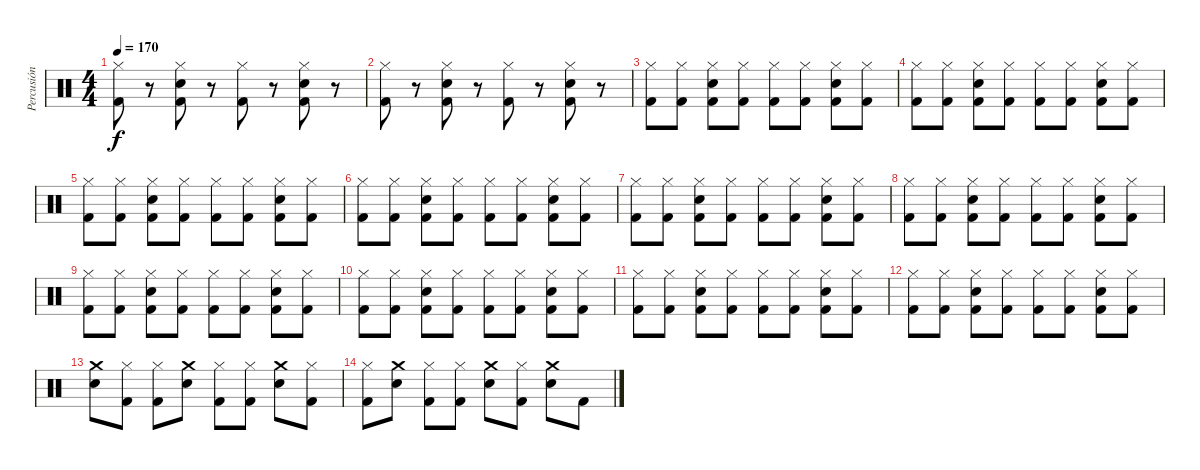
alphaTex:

\track ("Percusión" "Percusión") {instrument percussion}
\staff {score}
\articulation defaults
\ts (4 4)
\tempo 170
\clef neutral
\ks c
("Hi-Hat (closed)" "Kick (hit) 2").8{dy f} r.8 ("Snare (hit) 2" "Hi-Hat (closed)" "Kick (hit) 2").8 r.8 ("Hi-Hat (closed)" "Kick (hit) 2").8 r.8 ("Snare (hit) 2" "Hi-Hat (closed)" "Kick (hit) 2").8 r.8 |
("Hi-Hat (closed)" "Kick (hit) 2").8 r.8 ("Snare (hit) 2" "Hi-Hat (closed)" "Kick (hit) 2").8 r.8 ("Hi-Hat (closed)" "Kick (hit) 2").8 r.8 ("Snare (hit) 2" "Hi-Hat (closed)" "Kick (hit) 2").8 r.8 |
("Hi-Hat (closed)" "Kick (hit) 2").8 ("Hi-Hat (closed)" "Kick (hit) 2").8 ("Snare (hit) 2" "Hi-Hat (closed)" "Kick (hit) 2").8 ("Hi-Hat (closed)" "Kick (hit) 2").8 ("Hi-Hat (closed)" "Kick (hit) 2").8 ("Hi-Hat (closed)" "Kick (hit) 2").8 ("Snare (hit) 2" "Hi-Hat (closed)" "Kick (hit) 2").8 ("Hi-Hat (closed)" "Kick (hit) 2").8 |
("Hi-Hat (closed)" "Kick (hit) 2").8 ("Hi-Hat (closed)" "Kick (hit) 2").8 ("Snare (hit) 2" "Hi-Hat (closed)" "Kick (hit) 2").8 ("Hi-Hat (closed)" "Kick (hit) 2").8 ("Hi-Hat (closed)" "Kick (hit) 2").8 ("Hi-Hat (closed)" "Kick (hit) 2").8 ("Snare (hit) 2" "Hi-Hat (closed)" "Kick (hit) 2").8 ("Hi-Hat (closed)" "Kick (hit) 2").8 |
("Hi-Hat (closed)" "Kick (hit) 2").8 ("Hi-Hat (closed)" "Kick (hit) 2").8 ("Snare (hit) 2" "Hi-Hat (closed)" "Kick (hit) 2").8 ("Hi-Hat (closed)" "Kick (hit) 2").8 ("Hi-Hat (closed)" "Kick (hit) 2").8 ("Hi-Hat (closed)" "Kick (hit) 2").8 ("Snare (hit) 2" "Hi-Hat (closed)" "Kick (hit) 2").8 ("Hi-Hat (closed)" "Kick (hit) 2").8 |
("Hi-Hat (closed)" "Kick (hit) 2").8 ("Hi-Hat (closed)" "Kick (hit) 2").8 ("Snare (hit) 2" "Hi-Hat (closed)" "Kick (hit) 2").8 ("Hi-Hat (closed)" "Kick (hit) 2").8 ("Hi-Hat (closed)" "Kick (hit) 2").8 ("Hi-Hat (closed)" "Kick (hit) 2").8 ("Snare (hit) 2" "Hi-Hat (closed)" "Kick (hit) 2").8 ("Hi-Hat (closed)" "Kick (hit) 2").8 |
("Hi-Hat (closed)" "Kick (hit) 2").8 ("Hi-Hat (closed)" "Kick (hit) 2").8 ("Snare (hit) 2" "Hi-Hat (closed)" "Kick (hit) 2").8 ("Hi-Hat (closed)" "Kick (hit) 2").8 ("Hi-Hat (closed)" "Kick (hit) 2").8 ("Hi-Hat (closed)" "Kick (hit) 2").8 ("Snare (hit) 2" "Hi-Hat (closed)" "Kick (hit) 2").8 ("Hi-Hat (closed)" "Kick (hit) 2").8 |
("Hi-Hat (closed)" "Kick (hit) 2").8 ("Hi-Hat (closed)" "Kick (hit) 2").8 ("Snare (hit) 2" "Hi-Hat (closed)" "Kick (hit) 2").8 ("Hi-Hat (closed)" "Kick (hit) 2").8 ("Hi-Hat (closed)" "Kick (hit) 2").8 ("Hi-Hat (closed)" "Kick (hit) 2").8 ("Snare (hit) 2" "Hi-Hat (closed)" "Kick (hit) 2").8 ("Hi-Hat (closed)" "Kick (hit) 2").8 |
("Hi-Hat (closed)" "Kick (hit) 2").8 ("Hi-Hat (closed)" "Kick (hit) 2").8 ("Snare (hit) 2" "Hi-Hat (closed)" "Kick (hit) 2").8 ("Hi-Hat (closed)" "Kick (hit) 2").8 ("Hi-Hat (closed)" "Kick (hit) 2").8 ("Hi-Hat (closed)" "Kick (hit) 2").8 ("Snare (hit) 2" "Hi-Hat (closed)" "Kick (hit) 2").8 ("Hi-Hat (closed)" "Kick (hit) 2").8 |
("Hi-Hat (closed)" "Kick (hit) 2").8 ("Hi-Hat (closed)" "Kick (hit) 2").8 ("Snare (hit) 2" "Hi-Hat (closed)" "Kick (hit) 2").8 ("Hi-Hat (closed)" "Kick (hit) 2").8 ("Hi-Hat (closed)" "Kick (hit) 2").8 ("Hi-Hat (closed)" "Kick (hit) 2").8 ("Snare (hit) 2" "Hi-Hat (closed)" "Kick (hit) 2").8 ("Hi-Hat (closed)" "Kick (hit) 2").8 |
("Hi-Hat (closed)" "Kick (hit) 2").8 ("Hi-Hat (closed)" "Kick (hit) 2").8 ("Snare (hit) 2" "Hi-Hat (closed)" "Kick (hit) 2").8 ("Hi-Hat (closed)" "Kick (hit) 2").8 ("Hi-Hat (closed)" "Kick (hit) 2").8 ("Hi-Hat (closed)" "Kick (hit) 2").8 ("Snare (hit) 2" "Hi-Hat (closed)" "Kick (hit) 2").8 ("Hi-Hat (closed)" "Kick (hit) 2").8 |
("Hi-Hat (closed)" "Kick (hit) 2").8 ("Hi-Hat (closed)" "Kick (hit) 2").8 ("Snare (hit) 2" "Hi-Hat (closed)" "Kick (hit) 2").8 ("Hi-Hat (closed)" "Kick (hit) 2").8 ("Hi-Hat (closed)" "Kick (hit) 2").8 ("Hi-Hat (closed)" "Kick (hit) 2").8 ("Snare (hit) 2" "Hi-Hat (closed)" "Kick (hit) 2").8 ("Hi-Hat (closed)" "Kick (hit) 2").8 |
("Crash medium (hit)" "Snare (hit) 2").8 ("Hi-Hat (closed)" "Kick (hit) 2").8 ("Hi-Hat (closed)" "Kick (hit) 2").8 ("Crash medium (hit)" "Snare (hit) 2").8 ("Hi-Hat (closed)" "Kick (hit) 2").8 ("Hi-Hat (closed)" "Kick (hit) 2").8 ("Crash medium (hit)" "Snare (hit) 2").8 ("Hi-Hat (closed)" "Kick (hit) 2").8 |
("Hi-Hat (closed)" "Kick (hit) 2").8 ("Crash medium (hit)" "Snare (hit) 2").8 ("Hi-Hat (closed)" "Kick (hit) 2").8 ("Hi-Hat (closed)" "Kick (hit) 2").8 ("Crash medium (hit)" "Snare (hit) 2").8 ("Hi-Hat (closed)" "Kick (hit) 2").8 ("Crash medium (hit)" "Snare (hit) 2").8 "Kick (hit) 2".8
